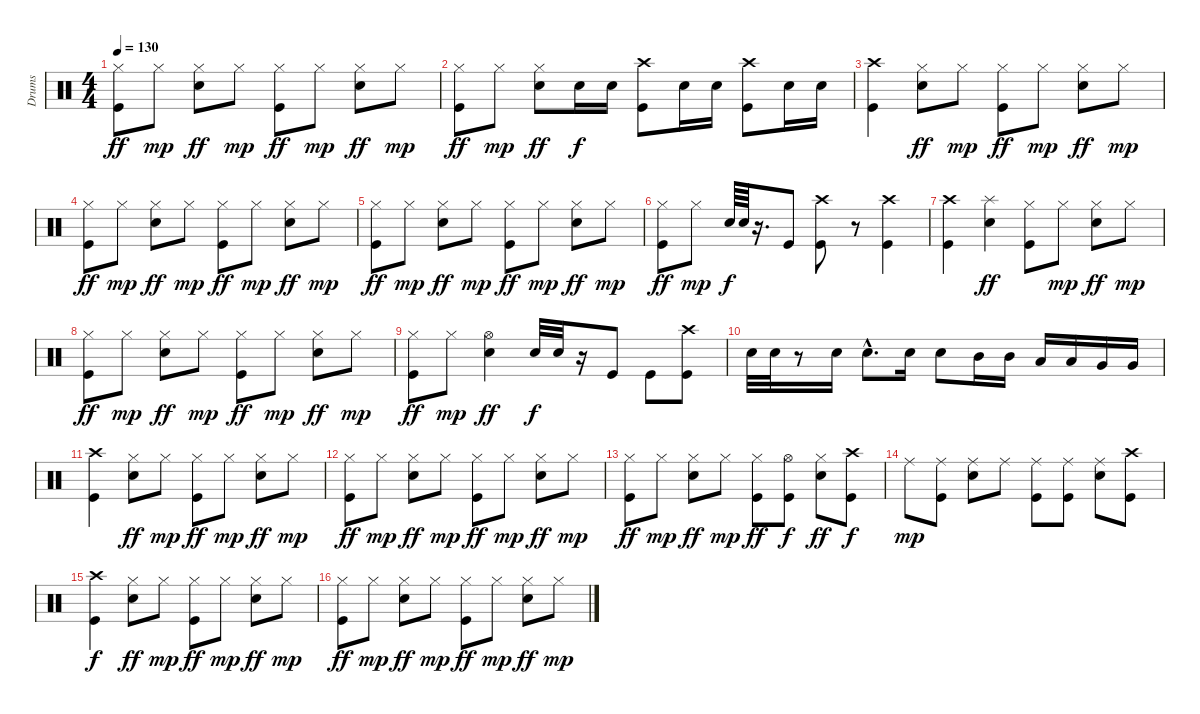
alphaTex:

\track ("Drums" "Drums") {instrument percussion}
\staff {score}
\articulation defaults
\ts (4 4)
\tempo 130
\clef neutral
\ks c
("Hi-Hat (closed)" "Kick (hit)").8{dy ff} "Hi-Hat (closed)".8{dy mp} ("Hi-Hat (closed)" "Snare (hit) 2").8{dy ff} "Hi-Hat (closed)".8{dy mp} ("Hi-Hat (closed)" "Kick (hit)").8{dy ff} "Hi-Hat (closed)".8{dy mp} ("Hi-Hat (closed)" "Snare (hit) 2").8{dy ff} "Hi-Hat (closed)".8{dy mp} |
("Hi-Hat (closed)" "Kick (hit)").8{dy ff} "Hi-Hat (closed)".8{dy mp} ("Hi-Hat (closed)" "Snare (hit) 2").8{dy ff} "Snare (hit) 2".16{dy f} "Snare (hit) 2".16 ("Crash high (hit)" "Kick (hit)").8 "Snare (hit) 2".16 "Snare (hit) 2".16 ("Crash high (hit)" "Kick (hit)").8 "Snare (hit) 2".16 "Snare (hit) 2".16 |
("Crash high (hit)" "Kick (hit)").4 ("Hi-Hat (closed)" "Snare (hit) 2").8{dy ff} "Hi-Hat (closed)".8{dy mp} ("Hi-Hat (closed)" "Kick (hit)").8{dy ff} "Hi-Hat (closed)".8{dy mp} ("Hi-Hat (closed)" "Snare (hit) 2").8{dy ff} "Hi-Hat (closed)".8{dy mp} |
("Hi-Hat (closed)" "Kick (hit)").8{dy ff} "Hi-Hat (closed)".8{dy mp} ("Hi-Hat (closed)" "Snare (hit) 2").8{dy ff} "Hi-Hat (closed)".8{dy mp} ("Hi-Hat (closed)" "Kick (hit)").8{dy ff} "Hi-Hat (closed)".8{dy mp} ("Hi-Hat (closed)" "Snare (hit) 2").8{dy ff} "Hi-Hat (closed)".8{dy mp} |
("Hi-Hat (closed)" "Kick (hit)").8{dy ff} "Hi-Hat (closed)".8{dy mp} ("Hi-Hat (closed)" "Snare (hit) 2").8{dy ff} "Hi-Hat (closed)".8{dy mp} ("Hi-Hat (closed)" "Kick (hit)").8{dy ff} "Hi-Hat (closed)".8{dy mp} ("Hi-Hat (closed)" "Snare (hit) 2").8{dy ff} "Hi-Hat (closed)".8{dy mp} |
("Hi-Hat (closed)" "Kick (hit)").8{dy ff} "Hi-Hat (closed)".8{dy mp} "Snare (hit) 2".64{dy f} "Snare (hit) 2".64 r.16{d} "Kick (hit)".8 ("Crash high (hit)" "Kick (hit)").8 r.8 ("Crash high (hit)" "Kick (hit)").4 |
("Crash high (hit)" "Kick (hit)").4 ("Splash (hit)" "Snare (hit) 2").4{dy ff} ("Hi-Hat (closed)" "Kick (hit)").8 "Hi-Hat (closed)".8{dy mp} ("Hi-Hat (closed)" "Snare (hit) 2").8{dy ff} "Hi-Hat (closed)".8{dy mp} |
("Hi-Hat (closed)" "Kick (hit)").8{dy ff} "Hi-Hat (closed)".8{dy mp} ("Hi-Hat (closed)" "Snare (hit) 2").8{dy ff} "Hi-Hat (closed)".8{dy mp} ("Hi-Hat (closed)" "Kick (hit)").8{dy ff} "Hi-Hat (closed)".8{dy mp} ("Hi-Hat (closed)" "Snare (hit) 2").8{dy ff} "Hi-Hat (closed)".8{dy mp} |
("Hi-Hat (closed)" "Kick (hit)").8{dy ff} "Hi-Hat (closed)".8{dy mp} ("Hi-Hat (open)" "Snare (hit) 2").4{dy ff} "Snare (hit) 2".32{dy f} "Snare (hit) 2".32 r.16 "Kick (hit)".8 "Kick (hit)".8 ("Crash high (hit)" "Kick (hit)").8 |
"Snare (hit) 2".32 "Snare (hit) 2".32 r.8 "Snare (hit) 2".16 "Snare (hit) 2"{hac}.8{d} "Snare (hit) 2".16 "Snare (hit) 2".8 "Mid Tom (hit)".16 "Mid Tom (hit)".16 "Low Tom (hit)".16 "Low Tom (hit)".16 "Very Low Tom (hit)".16 "Very Low Tom (hit)".16 |
("Crash high (hit)" "Kick (hit)").4 ("Hi-Hat (closed)" "Snare (hit) 2").8{dy ff} "Hi-Hat (closed)".8{dy mp} ("Hi-Hat (closed)" "Kick (hit)").8{dy ff} "Hi-Hat (closed)".8{dy mp} ("Hi-Hat (closed)" "Snare (hit) 2").8{dy ff} "Hi-Hat (closed)".8{dy mp} |
("Hi-Hat (closed)" "Kick (hit)").8{dy ff} "Hi-Hat (closed)".8{dy mp} ("Hi-Hat (closed)" "Snare (hit) 2").8{dy ff} "Hi-Hat (closed)".8{dy mp} ("Hi-Hat (closed)" "Kick (hit)").8{dy ff} "Hi-Hat (closed)".8{dy mp} ("Hi-Hat (closed)" "Snare (hit) 2").8{dy ff} "Hi-Hat (closed)".8{dy mp} |
("Hi-Hat (closed)" "Kick (hit)").8{dy ff} "Hi-Hat (closed)".8{dy mp} ("Hi-Hat (closed)" "Snare (hit) 2").8{dy ff} "Hi-Hat (closed)".8{dy mp} ("Hi-Hat (closed)" "Kick (hit)").8{dy ff} ("Hi-Hat (open)" "Kick (hit)").8{dy f} ("Hi-Hat (closed)" "Snare (hit) 2").8{dy ff} ("Crash high (hit)" "Kick (hit)").8{dy f} |
"Ride (middle)".8{dy mp} ("Ride (middle)" "Kick (hit)").8 ("Ride (middle)" "Snare (hit) 2").8 "Ride (middle)".8 ("Ride (middle)" "Kick (hit)").8 ("Ride (middle)" "Kick (hit)").8 ("Ride (middle)" "Snare (hit) 2").8 ("Crash high (hit)" "Kick (hit)").8 |
("Crash high (hit)" "Kick (hit)").4{dy f} ("Hi-Hat (closed)" "Snare (hit) 2").8{dy ff} "Hi-Hat (closed)".8{dy mp} ("Hi-Hat (closed)" "Kick (hit)").8{dy ff} "Hi-Hat (closed)".8{dy mp} ("Hi-Hat (closed)" "Snare (hit) 2").8{dy ff} "Hi-Hat (closed)".8{dy mp} |
("Hi-Hat (closed)" "Kick (hit)").8{dy ff} "Hi-Hat (closed)".8{dy mp} ("Hi-Hat (closed)" "Snare (hit) 2").8{dy ff} "Hi-Hat (closed)".8{dy mp} ("Hi-Hat (closed)" "Kick (hit)").8{dy ff} "Hi-Hat (closed)".8{dy mp} ("Hi-Hat (closed)" "Snare (hit) 2").8{dy ff} "Hi-Hat (closed)".8{dy mp}
